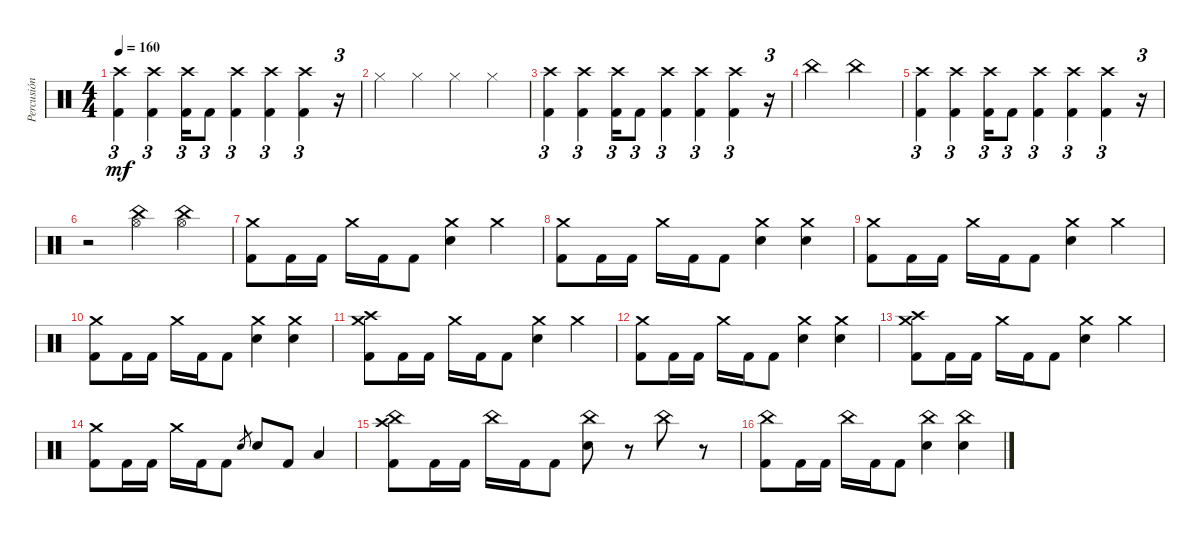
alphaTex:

\track ("Percusión" "Percusión") {instrument percussion}
\staff {score}
\articulation defaults
\ts (4 4)
\tempo 160
\clef neutral
\ks c
("Crash high (hit)" "Kick (hit) 2").4{tu (3 2) dy mf} ("Crash high (hit)" "Kick (hit) 2").4{tu (3 2)} ("Crash high (hit)" "Kick (hit) 2").16{tu (3 2)} "Kick (hit) 2".8{tu (3 2)} ("Crash high (hit)" "Kick (hit) 2").4{tu (3 2)} ("Crash high (hit)" "Kick (hit) 2").4{tu (3 2)} ("Crash high (hit)" "Kick (hit) 2").4{tu (3 2)} r.16{tu (3 2)} |
"Hi-Hat (closed)".4 "Hi-Hat (closed)".4 "Hi-Hat (closed)".4 "Hi-Hat (closed)".4 |
("Crash high (hit)" "Kick (hit) 2").4{tu (3 2)} ("Crash high (hit)" "Kick (hit) 2").4{tu (3 2)} ("Crash high (hit)" "Kick (hit) 2").16{tu (3 2)} "Kick (hit) 2".8{tu (3 2)} ("Crash high (hit)" "Kick (hit) 2").4{tu (3 2)} ("Crash high (hit)" "Kick (hit) 2").4{tu (3 2)} ("Crash high (hit)" "Kick (hit) 2").4{tu (3 2)} r.16{tu (3 2)} |
"China (hit)".2 "China (hit)".2 |
("Crash high (hit)" "Kick (hit) 2").4{tu (3 2)} ("Crash high (hit)" "Kick (hit) 2").4{tu (3 2)} ("Crash high (hit)" "Kick (hit) 2").16{tu (3 2)} "Kick (hit) 2".8{tu (3 2)} ("Crash high (hit)" "Kick (hit) 2").4{tu (3 2)} ("Crash high (hit)" "Kick (hit) 2").4{tu (3 2)} ("Crash high (hit)" "Kick (hit) 2").4{tu (3 2)} r.16{tu (3 2)} |
r.2 ("China (hit)" "Hi-Hat (open)").4 ("China (hit)" "Hi-Hat (open)").4 |
("Crash medium (hit)" "Kick (hit) 2").8 "Kick (hit) 2".16 "Kick (hit) 2".16 "Crash medium (hit)".16 "Kick (hit) 2".16 "Kick (hit) 2".8 ("Electric Snare (hit)" "Crash medium (hit)").4 "Crash medium (hit)".4 |
("Crash medium (hit)" "Kick (hit) 2").8 "Kick (hit) 2".16 "Kick (hit) 2".16 "Crash medium (hit)".16 "Kick (hit) 2".16 "Kick (hit) 2".8 ("Electric Snare (hit)" "Crash medium (hit)").4 ("Electric Snare (hit)" "Crash medium (hit)").4 |
("Crash medium (hit)" "Kick (hit) 2").8 "Kick (hit) 2".16 "Kick (hit) 2".16 "Crash medium (hit)".16 "Kick (hit) 2".16 "Kick (hit) 2".8 ("Electric Snare (hit)" "Crash medium (hit)").4 "Crash medium (hit)".4 |
("Crash medium (hit)" "Kick (hit) 2").8 "Kick (hit) 2".16 "Kick (hit) 2".16 "Crash medium (hit)".16 "Kick (hit) 2".16 "Kick (hit) 2".8 ("Electric Snare (hit)" "Crash medium (hit)").4 ("Electric Snare (hit)" "Crash medium (hit)").4 |
("Crash high (hit)" "Crash medium (hit)" "Kick (hit) 2").8 "Kick (hit) 2".16 "Kick (hit) 2".16 "Crash medium (hit)".16 "Kick (hit) 2".16 "Kick (hit) 2".8 ("Electric Snare (hit)" "Crash medium (hit)").4 "Crash medium (hit)".4 |
("Crash medium (hit)" "Kick (hit) 2").8 "Kick (hit) 2".16 "Kick (hit) 2".16 "Crash medium (hit)".16 "Kick (hit) 2".16 "Kick (hit) 2".8 ("Electric Snare (hit)" "Crash medium (hit)").4 ("Electric Snare (hit)" "Crash medium (hit)").4 |
("Crash high (hit)" "Crash medium (hit)" "Kick (hit) 2").8 "Kick (hit) 2".16 "Kick (hit) 2".16 "Crash medium (hit)".16 "Kick (hit) 2".16 "Kick (hit) 2".8 ("Electric Snare (hit)" "Crash medium (hit)").4 "Crash medium (hit)".4 |
("Crash medium (hit)" "Kick (hit) 2").8 "Kick (hit) 2".16 "Kick (hit) 2".16 "Crash medium (hit)".16 "Kick (hit) 2".16 "Kick (hit) 2".8 "Electric Snare (hit)".8{gr} "Electric Snare (hit)".8 "Kick (hit) 2".8 "Low Tom (hit)".4 |
("Crash high (hit)" "China (hit)" "Kick (hit) 2").8 "Kick (hit) 2".16 "Kick (hit) 2".16 "China (hit)".16 "Kick (hit) 2".16 "Kick (hit) 2".8 ("Electric Snare (hit)" "China (hit)").8 r.8 "China (hit)".8 r.8 |
("China (hit)" "Kick (hit) 2").8 "Kick (hit) 2".16 "Kick (hit) 2".16 "China (hit)".16 "Kick (hit) 2".16 "Kick (hit) 2".8 ("Electric Snare (hit)" "China (hit)").4 ("Electric Snare (hit)" "China (hit)").4
